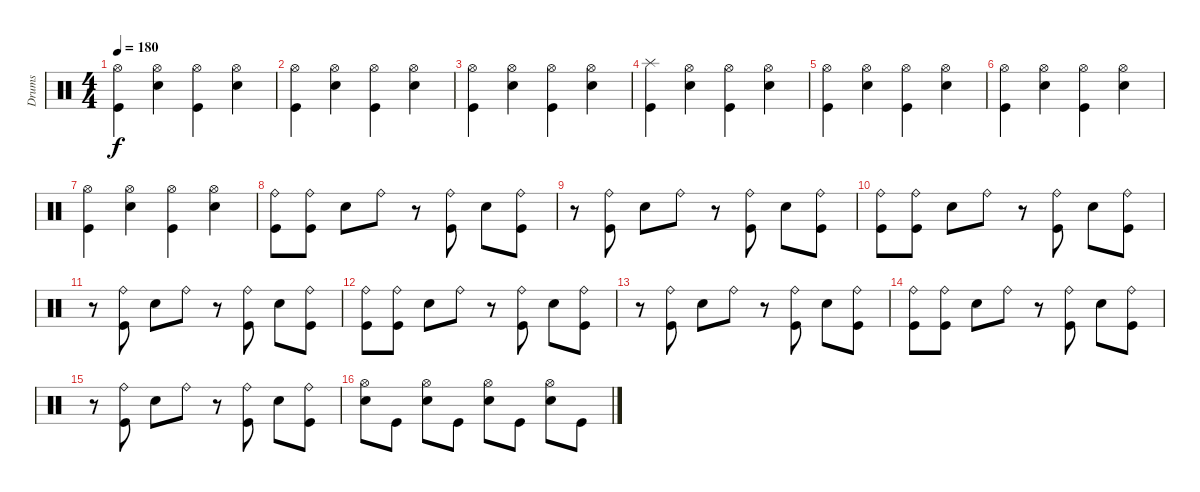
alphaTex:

\track ("Drums" "Drums") {instrument percussion}
\staff {score}
\articulation defaults
\ts (4 4)
\tempo 180
\clef neutral
\ks c
("Kick (hit)" "Hi-Hat (open)").4{dy f} ("Electric Snare (hit)" "Hi-Hat (open)").4 ("Kick (hit)" "Hi-Hat (open)").4 ("Electric Snare (hit)" "Hi-Hat (open)").4 |
("Kick (hit)" "Hi-Hat (open)").4 ("Electric Snare (hit)" "Hi-Hat (open)").4 ("Kick (hit)" "Hi-Hat (open)").4 ("Electric Snare (hit)" "Hi-Hat (open)").4 |
("Kick (hit)" "Hi-Hat (open)").4 ("Electric Snare (hit)" "Hi-Hat (open)").4 ("Kick (hit)" "Hi-Hat (open)").4 ("Electric Snare (hit)" "Hi-Hat (open)").4 |
("Kick (hit)" "Splash (hit)").4 ("Electric Snare (hit)" "Hi-Hat (open)").4 ("Kick (hit)" "Hi-Hat (open)").4 ("Electric Snare (hit)" "Hi-Hat (open)").4 |
("Kick (hit)" "Hi-Hat (open)").4 ("Electric Snare (hit)" "Hi-Hat (open)").4 ("Kick (hit)" "Hi-Hat (open)").4 ("Electric Snare (hit)" "Hi-Hat (open)").4 |
("Kick (hit)" "Hi-Hat (open)").4 ("Electric Snare (hit)" "Hi-Hat (open)").4 ("Kick (hit)" "Hi-Hat (open)").4 ("Electric Snare (hit)" "Hi-Hat (open)").4 |
("Kick (hit)" "Hi-Hat (open)").4 ("Electric Snare (hit)" "Hi-Hat (open)").4 ("Kick (hit)" "Hi-Hat (open)").4 ("Electric Snare (hit)" "Hi-Hat (open)").4 |
("Kick (hit)" "Ride (bell)").8 ("Kick (hit)" "Ride (bell)").8 "Electric Snare (hit)".8 "Ride (bell)".8 r.8 ("Kick (hit)" "Ride (bell)").8 "Electric Snare (hit)".8 ("Kick (hit)" "Ride (bell)").8 |
r.8 ("Kick (hit)" "Ride (bell)").8 "Electric Snare (hit)".8 "Ride (bell)".8 r.8 ("Kick (hit)" "Ride (bell)").8 "Electric Snare (hit)".8 ("Kick (hit)" "Ride (bell)").8 |
("Kick (hit)" "Ride (bell)").8 ("Kick (hit)" "Ride (bell)").8 "Electric Snare (hit)".8 "Ride (bell)".8 r.8 ("Kick (hit)" "Ride (bell)").8 "Electric Snare (hit)".8 ("Kick (hit)" "Ride (bell)").8 |
r.8 ("Kick (hit)" "Ride (bell)").8 "Electric Snare (hit)".8 "Ride (bell)".8 r.8 ("Kick (hit)" "Ride (bell)").8 "Electric Snare (hit)".8 ("Kick (hit)" "Ride (bell)").8 |
("Kick (hit)" "Ride (bell)").8 ("Kick (hit)" "Ride (bell)").8 "Electric Snare (hit)".8 "Ride (bell)".8 r.8 ("Kick (hit)" "Ride (bell)").8 "Electric Snare (hit)".8 ("Kick (hit)" "Ride (bell)").8 |
r.8 ("Kick (hit)" "Ride (bell)").8 "Electric Snare (hit)".8 "Ride (bell)".8 r.8 ("Kick (hit)" "Ride (bell)").8 "Electric Snare (hit)".8 ("Kick (hit)" "Ride (bell)").8 |
("Kick (hit)" "Ride (bell)").8 ("Kick (hit)" "Ride (bell)").8 "Electric Snare (hit)".8 "Ride (bell)".8 r.8 ("Kick (hit)" "Ride (bell)").8 "Electric Snare (hit)".8 ("Kick (hit)" "Ride (bell)").8 |
r.8 ("Kick (hit)" "Ride (bell)").8 "Electric Snare (hit)".8 "Ride (bell)".8 r.8 ("Kick (hit)" "Ride (bell)").8 "Electric Snare (hit)".8 ("Kick (hit)" "Ride (bell)").8 |
("Electric Snare (hit)" "Hi-Hat (open)").8 "Kick (hit)".8 ("Electric Snare (hit)" "Hi-Hat (open)").8 "Kick (hit)".8 ("Electric Snare (hit)" "Hi-Hat (open)").8 "Kick (hit)".8 ("Electric Snare (hit)" "Hi-Hat (open)").8 "Kick (hit)".8
